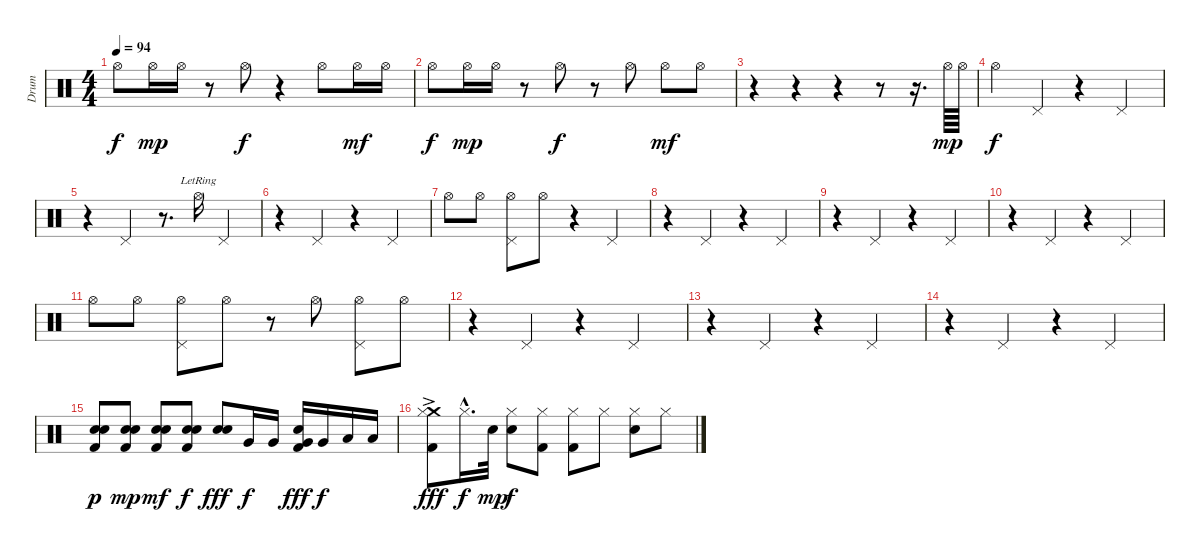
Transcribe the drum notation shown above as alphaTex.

\track ("Drum" "Drum") {instrument percussion}
\staff {score}
\articulation defaults
\ts (4 4)
\tempo 94
\clef neutral
\ks c "Hi-Hat (open)".8{dy f} "Hi-Hat (open)".16{dy mp} "Hi-Hat (open)".16
r.8 "Hi-Hat (open)".8{dy f} r.4 "Hi-Hat (open)".8 "Hi-Hat (open)".16{dy mf} "Hi-Hat (open)".16 |
"Hi-Hat (open)".8{dy f} "Hi-Hat (open)".16{dy mp} "Hi-Hat (open)".16 r.8 "Hi-Hat (open)".8{dy f} r.8 "Hi-Hat (open)".8 "Hi-Hat (open)".8{dy mf} "Hi-Hat (open)".8 |
r.4 r.4 r.4 r.8 r.16{d} "Hi-Hat (open)".64{dy mp} "Hi-Hat (open)".64 |
"Hi-Hat (open)".4{dy f} "Pedal Hi-Hat (hit)".4 r.4 "Pedal Hi-Hat (hit)".4 |
r.4 "Pedal Hi-Hat (hit)".4 r.8{d} "Hi-Hat (open)"{lr}.16 "Pedal Hi-Hat (hit)".4 |
r.4 "Pedal Hi-Hat (hit)".4 r.4 "Pedal Hi-Hat (hit)".4 |
"Hi-Hat (open)".8 "Hi-Hat (open)".8 ("Pedal Hi-Hat (hit)" "Hi-Hat (open)").8 "Hi-Hat (open)".8 r.4 "Pedal Hi-Hat (hit)".4 |
r.4 "Pedal Hi-Hat (hit)".4 r.4 "Pedal Hi-Hat (hit)".4 |
r.4 "Pedal Hi-Hat (hit)".4 r.4 "Pedal Hi-Hat (hit)".4 |
r.4 "Pedal Hi-Hat (hit)".4 r.4 "Pedal Hi-Hat (hit)".4 |
"Hi-Hat (open)".8 "Hi-Hat (open)".8 ("Pedal Hi-Hat (hit)" "Hi-Hat (open)").8 "Hi-Hat (open)".8 r.8 "Hi-Hat (open)".8 ("Pedal Hi-Hat (hit)" "Hi-Hat (open)").8 "Hi-Hat (open)".8 |
r.4 "Pedal Hi-Hat (hit)".4 r.4 "Pedal Hi-Hat (hit)".4 |
r.4 "Pedal Hi-Hat (hit)".4 r.4 "Pedal Hi-Hat (hit)".4 |
r.4 "Pedal Hi-Hat (hit)".4 r.4 "Pedal Hi-Hat (hit)".4 |
("Snare (hit) 2" "Snare (hit) 2" "Kick (hit) 2").8{dy p} ("Snare (hit) 2" "Snare (hit) 2" "Kick (hit) 2").8{dy mp} ("Snare (hit) 2" "Snare (hit) 2" "Kick (hit) 2").8{dy mf} ("Snare (hit) 2" "Snare (hit) 2" "Kick (hit) 2").8{dy f} ("Snare (hit) 2" "Snare (hit) 2").8{dy fff} "Very Low Tom (hit)".16{dy f} "Very Low Tom (hit)".16 ("Very Low Tom (hit)" "Snare (hit) 2" "Kick (hit) 2").16{dy fff} "Very Low Tom (hit)".16{dy f} "Low Floor Tom (hit)".16 "Low Floor Tom (hit)".16 |
("Crash medium (hit)"{ac} "Hi-Hat (closed)" "Kick (hit) 2").8{dy fff} "Hi-Hat (closed)"{hac}.16{d dy f} "Snare (hit) 2".32{dy mp} ("Hi-Hat (closed)" "Snare (hit) 2").8{dy f} ("Hi-Hat (closed)" "Kick (hit) 2").8 ("Hi-Hat (closed)" "Kick (hit) 2").8 "Hi-Hat (closed)".8 ("Hi-Hat (closed)" "Snare (hit) 2").8 "Hi-Hat (closed)".8
